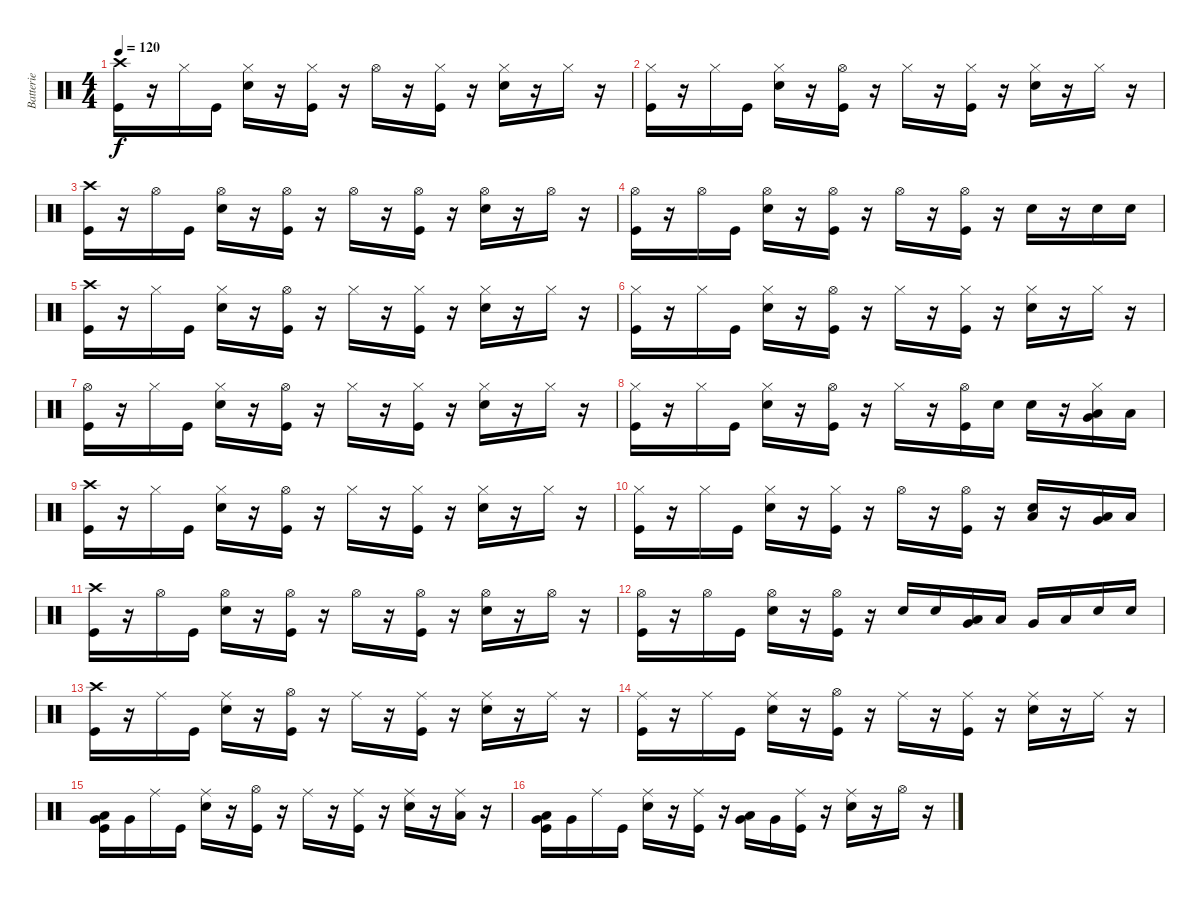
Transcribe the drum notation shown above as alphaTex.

\track ("Batterie" "Batterie") {instrument percussion}
\staff {score}
\articulation defaults
\ts (4 4)
\tempo 120
\clef neutral
\ks c
("Kick (hit)" "Crash high (hit)").16{dy f} r.16 "Hi-Hat (closed)".16 "Kick (hit)".16 ("Hi-Hat (closed)" "Electric Snare (hit)").16 r.16 ("Hi-Hat (closed)" "Kick (hit)").16 r.16 "Hi-Hat (open)".16 r.16 ("Kick (hit)" "Hi-Hat (closed)").16 r.16 ("Hi-Hat (closed)" "Electric Snare (hit)").16 r.16 "Hi-Hat (closed)".16 r.16 |
("Hi-Hat (closed)" "Kick (hit)").16 r.16 "Hi-Hat (closed)".16 "Kick (hit)".16 ("Hi-Hat (closed)" "Electric Snare (hit)").16 r.16 ("Hi-Hat (open)" "Kick (hit)").16 r.16 "Hi-Hat (closed)".16 r.16 ("Hi-Hat (closed)" "Kick (hit)").16 r.16 ("Hi-Hat (closed)" "Electric Snare (hit)").16 r.16 "Hi-Hat (closed)".16 r.16 |
("Crash high (hit)" "Kick (hit)").16 r.16 "Hi-Hat (open)".16 "Kick (hit)".16 ("Hi-Hat (open)" "Electric Snare (hit)").16 r.16 ("Hi-Hat (open)" "Kick (hit)").16 r.16 "Hi-Hat (open)".16 r.16 ("Hi-Hat (open)" "Kick (hit)").16 r.16 ("Hi-Hat (open)" "Electric Snare (hit)").16 r.16 "Hi-Hat (open)".16 r.16 |
("Hi-Hat (open)" "Kick (hit)").16 r.16 "Hi-Hat (open)".16 "Kick (hit)".16 ("Hi-Hat (open)" "Electric Snare (hit)").16 r.16 ("Hi-Hat (open)" "Kick (hit)").16 r.16 "Hi-Hat (open)".16 r.16 ("Hi-Hat (open)" "Kick (hit)").16 r.16 "Electric Snare (hit)".16 r.16 "Electric Snare (hit)".16 "Electric Snare (hit)".16 |
("Crash high (hit)" "Kick (hit)").16 r.16 "Hi-Hat (closed)".16 "Kick (hit)".16 ("Hi-Hat (closed)" "Electric Snare (hit)").16 r.16 ("Hi-Hat (open)" "Kick (hit)").16 r.16 "Hi-Hat (closed)".16 r.16 ("Kick (hit)" "Hi-Hat (closed)").16 r.16 ("Hi-Hat (closed)" "Electric Snare (hit)").16 r.16 "Hi-Hat (closed)".16 r.16 |
("Hi-Hat (closed)" "Kick (hit)").16 r.16 "Hi-Hat (closed)".16 "Kick (hit)".16 ("Hi-Hat (closed)" "Electric Snare (hit)").16 r.16 ("Kick (hit)" "Hi-Hat (open)").16 r.16 "Hi-Hat (closed)".16 r.16 ("Kick (hit)" "Hi-Hat (closed)").16 r.16 ("Electric Snare (hit)" "Hi-Hat (closed)").16 r.16 "Hi-Hat (closed)".16 r.16 |
("Hi-Hat (open)" "Kick (hit)").16 r.16 "Hi-Hat (closed)".16 "Kick (hit)".16 ("Electric Snare (hit)" "Hi-Hat (closed)").16 r.16 ("Kick (hit)" "Hi-Hat (open)").16 r.16 "Hi-Hat (closed)".16 r.16 ("Hi-Hat (closed)" "Kick (hit)").16 r.16 ("Electric Snare (hit)" "Hi-Hat (closed)").16 r.16 "Hi-Hat (closed)".16 r.16 |
("Hi-Hat (closed)" "Kick (hit)").16 r.16 "Hi-Hat (closed)".16 "Kick (hit)".16 ("Hi-Hat (closed)" "Electric Snare (hit)").16 r.16 ("Kick (hit)" "Hi-Hat (open)").16 r.16 "Hi-Hat (closed)".16 r.16 ("Kick (hit)" "Hi-Hat (open)").16 "Electric Snare (hit)".16 "Electric Snare (hit)".16 r.16 ("Very Low Tom (hit)" "Low Floor Tom (hit)" "Hi-Hat (closed)").16 "Low Floor Tom (hit)".16 |
("Crash high (hit)" "Kick (hit)").16 r.16 "Hi-Hat (closed)".16 "Kick (hit)".16 ("Hi-Hat (closed)" "Electric Snare (hit)").16 r.16 ("Kick (hit)" "Hi-Hat (open)").16 r.16 "Hi-Hat (closed)".16 r.16 ("Hi-Hat (closed)" "Kick (hit)").16 r.16 ("Electric Snare (hit)" "Hi-Hat (closed)").16 r.16 "Hi-Hat (closed)".16 r.16 |
("Hi-Hat (closed)" "Kick (hit)").16 r.16 "Hi-Hat (closed)".16 "Kick (hit)".16 ("Electric Snare (hit)" "Hi-Hat (closed)").16 r.16 ("Hi-Hat (closed)" "Kick (hit)").16 r.16 "Hi-Hat (open)".16 r.16 ("Hi-Hat (open)" "Kick (hit)").16 r.16 ("Low Floor Tom (hit)" "Electric Snare (hit)").16 r.16 ("Very Low Tom (hit)" "Low Floor Tom (hit)").16 "Low Floor Tom (hit)".16 |
("Crash high (hit)" "Kick (hit)").16 r.16 "Hi-Hat (open)".16 "Kick (hit)".16 ("Hi-Hat (open)" "Electric Snare (hit)").16 r.16 ("Kick (hit)" "Hi-Hat (open)").16 r.16 "Hi-Hat (open)".16 r.16 ("Hi-Hat (open)" "Kick (hit)").16 r.16 ("Hi-Hat (open)" "Electric Snare (hit)").16 r.16 "Hi-Hat (open)".16 r.16 |
("Hi-Hat (open)" "Kick (hit)").16 r.16 "Hi-Hat (open)".16 "Kick (hit)".16 ("Hi-Hat (open)" "Electric Snare (hit)").16 r.16 ("Hi-Hat (open)" "Kick (hit)").16 r.16 "Electric Snare (hit)".16 "Electric Snare (hit)".16 ("Low Tom (hit)" "Very Low Tom (hit)").16 "Low Tom (hit)".16 "Very Low Tom (hit)".16 "Low Floor Tom (hit)".16 "Electric Snare (hit)".16 "Electric Snare (hit)".16 |
("Crash high (hit)" "Kick (hit)").16 r.16 "Ride (middle)".16 "Kick (hit)".16 ("Ride (middle)" "Electric Snare (hit)").16 r.16 ("Hi-Hat (open)" "Kick (hit)").16 r.16 "Ride (middle)".16 r.16 ("Kick (hit)" "Ride (middle)").16 r.16 ("Ride (middle)" "Electric Snare (hit)").16 r.16 "Ride (middle)".16 r.16 |
("Ride (middle)" "Kick (hit)").16 r.16 "Ride (middle)".16 "Kick (hit)".16 ("Ride (middle)" "Electric Snare (hit)").16 r.16 ("Hi-Hat (open)" "Kick (hit)").16 r.16 "Ride (middle)".16 r.16 ("Ride (middle)" "Kick (hit)").16 r.16 ("Ride (middle)" "Electric Snare (hit)").16 r.16 "Ride (middle)".16 r.16 |
("Very Low Tom (hit)" "Low Tom (hit)" "Kick (hit)").16 "Very Low Tom (hit)".16 "Ride (middle)".16 "Kick (hit)".16 ("Ride (middle)" "Electric Snare (hit)").16 r.16 ("Hi-Hat (open)" "Kick (hit)").16 r.16 "Ride (middle)".16 r.16 ("Ride (middle)" "Kick (hit)").16 r.16 ("Electric Snare (hit)" "Ride (middle)").16 r.16 ("Low Floor Tom (hit)" "Ride (middle)").16 r.16 |
("Very Low Tom (hit)" "Low Tom (hit)" "Kick (hit)").16 "Very Low Tom (hit)".16 "Ride (middle)".16 "Kick (hit)".16 ("Electric Snare (hit)" "Ride (middle)").16 r.16 ("Ride (middle)" "Kick (hit)").16 r.16 ("Very Low Tom (hit)" "Low Tom (hit)").16 "Very Low Tom (hit)".16 ("Kick (hit)" "Ride (middle)").16 r.16 ("Ride (middle)" "Electric Snare (hit)").16 r.16 "Hi-Hat (open)".16 r.16
